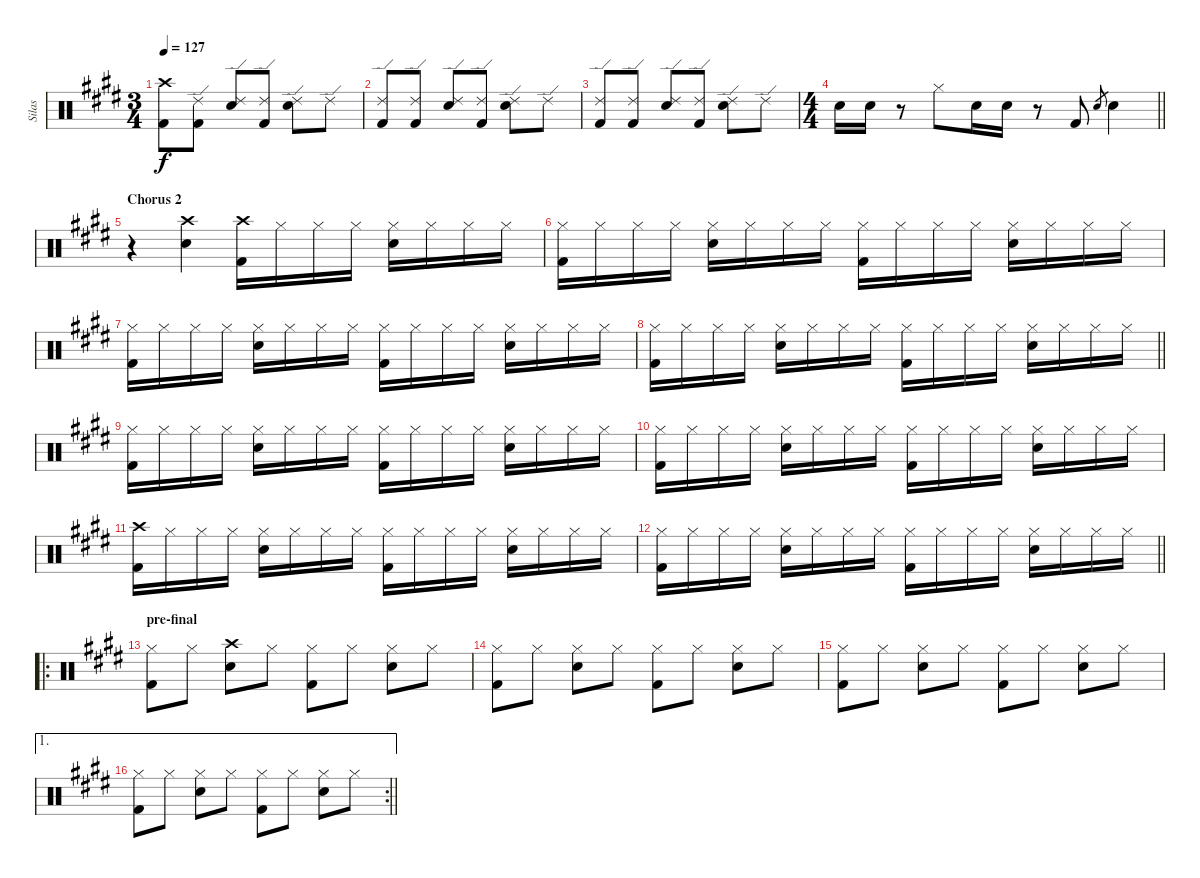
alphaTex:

\track ("Silas" "Silas") {instrument percussion}
\staff {score}
\articulation defaults
\ts (3 4)
\tempo 127
\clef neutral
\ks e
("Crash high (hit)" "Kick (hit) 2").8{dy f} ("Ride (edge) 2" "Kick (hit) 2").8 ("Ride (edge) 2" "Snare (hit) 2").8 ("Ride (edge) 2" "Kick (hit) 2").8 ("Ride (edge) 2" "Snare (hit) 2").8 "Ride (edge) 2".8 |
("Ride (edge) 2" "Kick (hit) 2").8 ("Ride (edge) 2" "Kick (hit) 2").8 ("Ride (edge) 2" "Snare (hit) 2").8 ("Ride (edge) 2" "Kick (hit) 2").8 ("Ride (edge) 2" "Snare (hit) 2").8 "Ride (edge) 2".8 |
("Ride (edge) 2" "Kick (hit) 2").8 ("Ride (edge) 2" "Kick (hit) 2").8 ("Ride (edge) 2" "Snare (hit) 2").8 ("Ride (edge) 2" "Kick (hit) 2").8 ("Ride (edge) 2" "Snare (hit) 2").8 "Ride (edge) 2".8 |
\ts (4 4)
\barLineRight lightlight "Snare (hit) 2".16 "Snare (hit) 2".16
r.8 "Hi-Hat (closed)".8 "Snare (hit) 2".16 "Snare (hit) 2".16 r.8 "Kick (hit) 2".8 "Snare (hit) 2".8{gr} "Snare (hit) 2".4 |
\section ("" "Chorus 2")
r.4 ("Crash high (hit)" "Snare (hit) 2").4 ("Crash high (hit)" "Kick (hit) 2").16 "Hi-Hat (closed)".16 "Hi-Hat (closed)".16 "Hi-Hat (closed)".16 ("Hi-Hat (closed)" "Snare (hit) 2").16 "Hi-Hat (closed)".16 "Hi-Hat (closed)".16 "Hi-Hat (closed)".16 |
("Hi-Hat (closed)" "Kick (hit) 2").16 "Hi-Hat (closed)".16 "Hi-Hat (closed)".16 "Hi-Hat (closed)".16 ("Hi-Hat (closed)" "Snare (hit) 2").16 "Hi-Hat (closed)".16 "Hi-Hat (closed)".16 "Hi-Hat (closed)".16 ("Hi-Hat (closed)" "Kick (hit) 2").16 "Hi-Hat (closed)".16 "Hi-Hat (closed)".16 "Hi-Hat (closed)".16 ("Hi-Hat (closed)" "Snare (hit) 2").16 "Hi-Hat (closed)".16 "Hi-Hat (closed)".16 "Hi-Hat (closed)".16 |
("Hi-Hat (closed)" "Kick (hit) 2").16 "Hi-Hat (closed)".16 "Hi-Hat (closed)".16 "Hi-Hat (closed)".16 ("Hi-Hat (closed)" "Snare (hit) 2").16 "Hi-Hat (closed)".16 "Hi-Hat (closed)".16 "Hi-Hat (closed)".16 ("Hi-Hat (closed)" "Kick (hit) 2").16 "Hi-Hat (closed)".16 "Hi-Hat (closed)".16 "Hi-Hat (closed)".16 ("Hi-Hat (closed)" "Snare (hit) 2").16 "Hi-Hat (closed)".16 "Hi-Hat (closed)".16 "Hi-Hat (closed)".16 |
\barLineRight lightlight
("Hi-Hat (closed)" "Kick (hit) 2").16 "Hi-Hat (closed)".16 "Hi-Hat (closed)".16 "Hi-Hat (closed)".16 ("Hi-Hat (closed)" "Snare (hit) 2").16 "Hi-Hat (closed)".16 "Hi-Hat (closed)".16 "Hi-Hat (closed)".16 ("Hi-Hat (closed)" "Kick (hit) 2").16 "Hi-Hat (closed)".16 "Hi-Hat (closed)".16 "Hi-Hat (closed)".16 ("Hi-Hat (closed)" "Snare (hit) 2").16 "Hi-Hat (closed)".16 "Hi-Hat (closed)".16 "Hi-Hat (closed)".16 |
("Hi-Hat (closed)" "Kick (hit) 2").16 "Hi-Hat (closed)".16 "Hi-Hat (closed)".16 "Hi-Hat (closed)".16 ("Hi-Hat (closed)" "Snare (hit) 2").16 "Hi-Hat (closed)".16 "Hi-Hat (closed)".16 "Hi-Hat (closed)".16 ("Hi-Hat (closed)" "Kick (hit) 2").16 "Hi-Hat (closed)".16 "Hi-Hat (closed)".16 "Hi-Hat (closed)".16 ("Hi-Hat (closed)" "Snare (hit) 2").16 "Hi-Hat (closed)".16 "Hi-Hat (closed)".16 "Hi-Hat (closed)".16 |
("Hi-Hat (closed)" "Kick (hit) 2").16 "Hi-Hat (closed)".16 "Hi-Hat (closed)".16 "Hi-Hat (closed)".16 ("Hi-Hat (closed)" "Snare (hit) 2").16 "Hi-Hat (closed)".16 "Hi-Hat (closed)".16 "Hi-Hat (closed)".16 ("Hi-Hat (closed)" "Kick (hit) 2").16 "Hi-Hat (closed)".16 "Hi-Hat (closed)".16 "Hi-Hat (closed)".16 ("Hi-Hat (closed)" "Snare (hit) 2").16 "Hi-Hat (closed)".16 "Hi-Hat (closed)".16 "Hi-Hat (closed)".16 |
("Crash high (hit)" "Kick (hit) 2").16 "Hi-Hat (closed)".16 "Hi-Hat (closed)".16 "Hi-Hat (closed)".16 ("Hi-Hat (closed)" "Snare (hit) 2").16 "Hi-Hat (closed)".16 "Hi-Hat (closed)".16 "Hi-Hat (closed)".16 ("Hi-Hat (closed)" "Kick (hit) 2").16 "Hi-Hat (closed)".16 "Hi-Hat (closed)".16 "Hi-Hat (closed)".16 ("Hi-Hat (closed)" "Snare (hit) 2").16 "Hi-Hat (closed)".16 "Hi-Hat (closed)".16 "Hi-Hat (closed)".16 |
\barLineRight lightlight
("Hi-Hat (closed)" "Kick (hit) 2").16 "Hi-Hat (closed)".16 "Hi-Hat (closed)".16 "Hi-Hat (closed)".16 ("Hi-Hat (closed)" "Snare (hit) 2").16 "Hi-Hat (closed)".16 "Hi-Hat (closed)".16 "Hi-Hat (closed)".16 ("Hi-Hat (closed)" "Kick (hit) 2").16 "Hi-Hat (closed)".16 "Hi-Hat (closed)".16 "Hi-Hat (closed)".16 ("Hi-Hat (closed)" "Snare (hit) 2").16 "Hi-Hat (closed)".16 "Hi-Hat (closed)".16 "Hi-Hat (closed)".16 |
\ro
\section ("" "pre-final")
("Hi-Hat (closed)" "Kick (hit) 2").8 "Hi-Hat (closed)".8 ("Crash high (hit)" "Snare (hit) 2").8 "Hi-Hat (closed)".8 ("Hi-Hat (closed)" "Kick (hit) 2").8 "Hi-Hat (closed)".8 ("Hi-Hat (closed)" "Snare (hit) 2").8 "Hi-Hat (closed)".8 |
("Hi-Hat (closed)" "Kick (hit) 2").8 "Hi-Hat (closed)".8 ("Hi-Hat (closed)" "Snare (hit) 2").8 "Hi-Hat (closed)".8 ("Hi-Hat (closed)" "Kick (hit) 2").8 "Hi-Hat (closed)".8 ("Hi-Hat (closed)" "Snare (hit) 2").8 "Hi-Hat (closed)".8 |
("Hi-Hat (closed)" "Kick (hit) 2").8 "Hi-Hat (closed)".8 ("Hi-Hat (closed)" "Snare (hit) 2").8 "Hi-Hat (closed)".8 ("Hi-Hat (closed)" "Kick (hit) 2").8 "Hi-Hat (closed)".8 ("Hi-Hat (closed)" "Snare (hit) 2").8 "Hi-Hat (closed)".8 |
\ae 1
\rc 2
\barLineRight lightlight
("Hi-Hat (closed)" "Kick (hit) 2").8 "Hi-Hat (closed)".8 ("Hi-Hat (closed)" "Snare (hit) 2").8 "Hi-Hat (closed)".8 ("Hi-Hat (closed)" "Kick (hit) 2").8 "Hi-Hat (closed)".8 ("Hi-Hat (closed)" "Snare (hit) 2").8 "Hi-Hat (closed)".8
